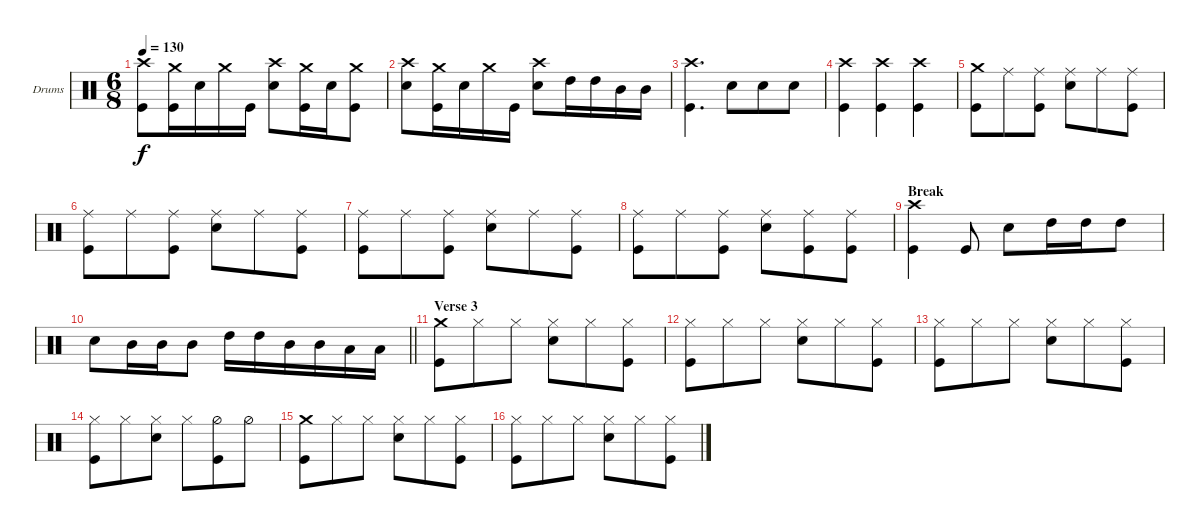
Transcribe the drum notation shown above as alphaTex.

\bracketExtendMode groupsimilarinstruments
\firstSystemTrackNameOrientation horizontal
\otherSystemsTrackNameOrientation horizontal
\track ("drums (Anton Zulganov)" "Drums") {instrument percussion}
\staff {score}
\articulation defaults
\ts (6 8)
\tempo 130
\clef neutral
\ks aminor
("Kick (hit)" "Crash high (hit)").8{dy f} ("Crash medium (hit)" "Kick (hit)").16 "Snare (hit) 2".16 "Crash medium (hit)".16 "Kick (hit)".16 ("Crash high (hit)" "Snare (hit) 2").8 ("Kick (hit)" "Crash medium (hit)").16 "Snare (hit) 2".16 ("Kick (hit)" "Crash medium (hit)").8 |
("Crash high (hit)" "Snare (hit) 2").8 ("Crash medium (hit)" "Kick (hit)").16 "Snare (hit) 2".16 "Crash medium (hit)".16 "Kick (hit)".16 ("Crash high (hit)" "Snare (hit) 2").8 "High Tom (hit)".16 "High Tom (hit)".16 "Mid Tom (hit)".16 "Mid Tom (hit)".16 |
("Crash high (hit)" "Kick (hit)").4{d} "Snare (hit) 2".8 "Snare (hit) 2".8 "Snare (hit) 2".8 |
("Crash high (hit)" "Kick (hit)").4 ("Crash high (hit)" "Kick (hit)").4 ("Crash high (hit)" "Kick (hit)").4 |
("Crash medium (hit)" "Kick (hit)").8 "Ride (middle)".8 ("Kick (hit)" "Ride (middle)").8 ("Snare (hit) 2" "Ride (middle)").8 "Ride (middle)".8 ("Kick (hit)" "Ride (middle)").8 |
("Kick (hit)" "Ride (middle)").8 "Ride (middle)".8 ("Kick (hit)" "Ride (middle)").8 ("Snare (hit) 2" "Ride (middle)").8 "Ride (middle)".8 ("Kick (hit)" "Ride (middle)").8 |
("Kick (hit)" "Ride (middle)").8 "Ride (middle)".8 ("Kick (hit)" "Ride (middle)").8 ("Snare (hit) 2" "Ride (middle)").8 "Ride (middle)".8 ("Kick (hit)" "Ride (middle)").8 |
("Kick (hit)" "Ride (middle)").8 "Ride (middle)".8 ("Kick (hit)" "Ride (middle)").8 ("Snare (hit) 2" "Ride (middle)").8 ("Kick (hit)" "Ride (middle)").8 ("Kick (hit)" "Ride (middle)").8 |
\section ("" "Break")
("Kick (hit)" "Crash high (hit)").4 "Kick (hit)".8 "Snare (hit) 2".8 "High Tom (hit)".16 "High Tom (hit)".16 "High Tom (hit)".8 |
\barLineRight lightlight "Snare (hit) 2".8 "Mid Tom (hit)".16 "Mid Tom (hit)".16 "Mid Tom (hit)".8 "High Tom (hit)".16 "High Tom (hit)".16 "Mid Tom (hit)".16 "Mid Tom (hit)".16 "Low Tom (hit)".16 "Low Tom (hit)".16
|
\section ("" "Verse 3")
("Kick (hit)" "Crash medium (hit)").8 "Hi-Hat (closed)".8 "Hi-Hat (closed)".8 ("Snare (hit) 2" "Hi-Hat (closed)").8 "Hi-Hat (closed)".8 ("Kick (hit)" "Hi-Hat (closed)").8 |
("Kick (hit)" "Hi-Hat (closed)").8 "Hi-Hat (closed)".8 "Hi-Hat (closed)".8 ("Snare (hit) 2" "Hi-Hat (closed)").8 "Hi-Hat (closed)".8 ("Kick (hit)" "Hi-Hat (closed)").8 |
("Kick (hit)" "Hi-Hat (closed)").8 "Hi-Hat (closed)".8 "Hi-Hat (closed)".8 ("Snare (hit) 2" "Hi-Hat (closed)").8 "Hi-Hat (closed)".8 ("Kick (hit)" "Hi-Hat (closed)").8 |
("Kick (hit)" "Hi-Hat (closed)").8 "Hi-Hat (closed)".8 ("Snare (hit) 2" "Hi-Hat (closed)").8 "Hi-Hat (closed)".8 ("Kick (hit)" "Hi-Hat (half)").8 "Hi-Hat (half)".8 |
("Kick (hit)" "Crash medium (hit)").8 "Hi-Hat (closed)".8 "Hi-Hat (closed)".8 ("Snare (hit) 2" "Hi-Hat (closed)").8 "Hi-Hat (closed)".8 ("Kick (hit)" "Hi-Hat (closed)").8 |
("Kick (hit)" "Hi-Hat (closed)").8 "Hi-Hat (closed)".8 "Hi-Hat (closed)".8 ("Snare (hit) 2" "Hi-Hat (closed)").8 "Hi-Hat (closed)".8 ("Kick (hit)" "Hi-Hat (closed)").8
